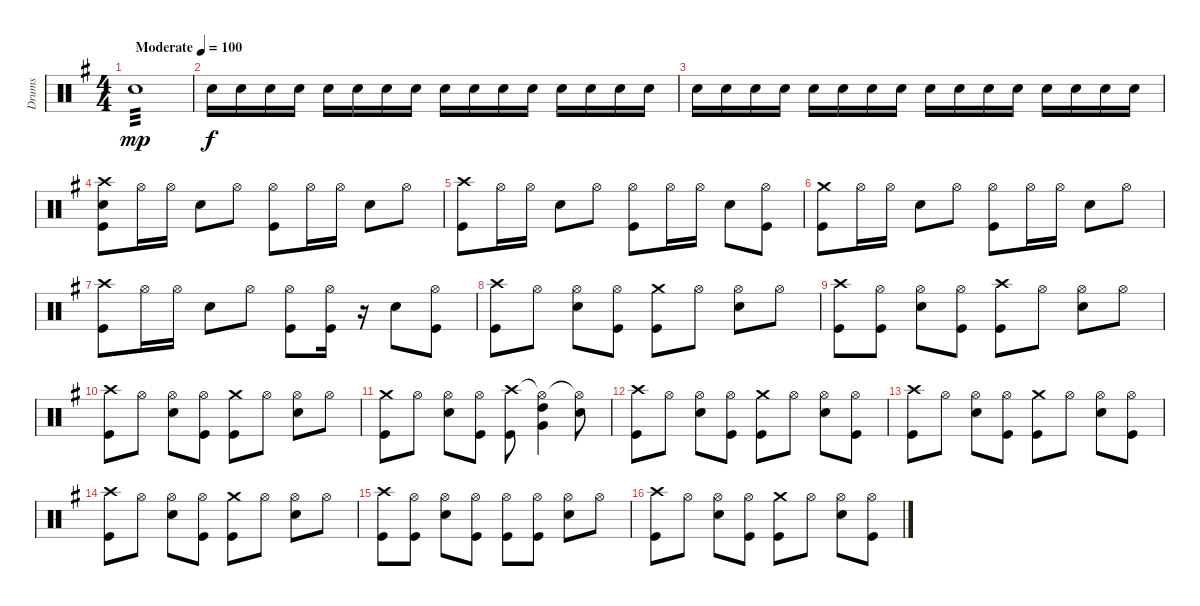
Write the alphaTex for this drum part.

\track ("Drums" "Drums") {instrument percussion}
\staff {score}
\articulation defaults
\ts (4 4)
\tempo (100 "Moderate")
\clef neutral
\ks g "Snare (hit) 2".1{tp 3 dy mp}
|
"Snare (hit) 2".16{dy f} "Snare (hit) 2".16 "Snare (hit) 2".16 "Snare (hit) 2".16 "Snare (hit) 2".16 "Snare (hit) 2".16 "Snare (hit) 2".16 "Snare (hit) 2".16 "Snare (hit) 2".16 "Snare (hit) 2".16 "Snare (hit) 2".16 "Snare (hit) 2".16 "Snare (hit) 2".16 "Snare (hit) 2".16 "Snare (hit) 2".16 "Snare (hit) 2".16 |
"Snare (hit) 2".16 "Snare (hit) 2".16 "Snare (hit) 2".16 "Snare (hit) 2".16 "Snare (hit) 2".16 "Snare (hit) 2".16 "Snare (hit) 2".16 "Snare (hit) 2".16 "Snare (hit) 2".16 "Snare (hit) 2".16 "Snare (hit) 2".16 "Snare (hit) 2".16 "Snare (hit) 2".16 "Snare (hit) 2".16 "Snare (hit) 2".16 "Snare (hit) 2".16 |
("Crash high (hit)" "Snare (hit) 2" "Kick (hit)").8 "Hi-Hat (open)".16 "Hi-Hat (open)".16 "Snare (hit) 2".8 "Hi-Hat (open)".8 ("Hi-Hat (open)" "Kick (hit)").8 "Hi-Hat (open)".16 "Hi-Hat (open)".16 "Snare (hit) 2".8 "Hi-Hat (open)".8 |
("Crash high (hit)" "Kick (hit)").8 "Hi-Hat (open)".16 "Hi-Hat (open)".16 "Snare (hit) 2".8 "Hi-Hat (open)".8 ("Hi-Hat (open)" "Kick (hit)").8 "Hi-Hat (open)".16 "Hi-Hat (open)".16 "Snare (hit) 2".8 ("Hi-Hat (open)" "Kick (hit)").8 |
("Crash medium (hit)" "Kick (hit)").8 "Hi-Hat (open)".16 "Hi-Hat (open)".16 "Snare (hit) 2".8 "Hi-Hat (open)".8 ("Hi-Hat (open)" "Kick (hit)").8 "Hi-Hat (open)".16 "Hi-Hat (open)".16 "Snare (hit) 2".8 "Hi-Hat (open)".8 |
("Crash high (hit)" "Kick (hit)").8 "Hi-Hat (open)".16 "Hi-Hat (open)".16 "Snare (hit) 2".8 "Hi-Hat (open)".8 ("Hi-Hat (open)" "Kick (hit)").8 ("Hi-Hat (open)" "Kick (hit)").16 r.16 "Snare (hit) 2".8 ("Hi-Hat (open)" "Kick (hit)").8 |
("Crash high (hit)" "Kick (hit)").8 "Hi-Hat (open)".8 ("Hi-Hat (open)" "Snare (hit) 2").8 ("Hi-Hat (open)" "Kick (hit)").8 ("Crash medium (hit)" "Kick (hit)").8 "Hi-Hat (open)".8 ("Hi-Hat (open)" "Snare (hit) 2").8 "Hi-Hat (open)".8 |
("Crash high (hit)" "Kick (hit)").8 ("Hi-Hat (open)" "Kick (hit)").8 ("Hi-Hat (open)" "Snare (hit) 2").8 ("Hi-Hat (open)" "Kick (hit)").8 ("Crash high (hit)" "Kick (hit)").8 "Hi-Hat (open)".8 ("Hi-Hat (open)" "Snare (hit) 2").8 "Hi-Hat (open)".8 |
("Crash high (hit)" "Kick (hit)").8 "Hi-Hat (open)".8 ("Hi-Hat (open)" "Snare (hit) 2").8 ("Hi-Hat (open)" "Kick (hit)").8 ("Crash medium (hit)" "Kick (hit)").8 "Hi-Hat (open)".8 ("Hi-Hat (open)" "Snare (hit) 2").8 "Hi-Hat (open)".8 |
("Crash medium (hit)" "Kick (hit)").8 "Hi-Hat (open)".8 ("Hi-Hat (open)" "Snare (hit) 2").8 ("Hi-Hat (open)" "Kick (hit)").8 ("Crash high (hit)" "Kick (hit)").8 ("Hi-Hat (open)"{t} "High Tom (hit)" "Very Low Tom (hit)").4 ("Hi-Hat (open)"{t} "Snare (hit) 2").8 |
("Crash high (hit)" "Kick (hit)").8 "Hi-Hat (open)".8 ("Hi-Hat (open)" "Snare (hit) 2").8 ("Hi-Hat (open)" "Kick (hit)").8 ("Crash medium (hit)" "Kick (hit)").8 "Hi-Hat (open)".8 ("Hi-Hat (open)" "Snare (hit) 2").8 ("Hi-Hat (open)" "Kick (hit)").8 |
("Crash high (hit)" "Kick (hit)").8 "Hi-Hat (open)".8 ("Hi-Hat (open)" "Snare (hit) 2").8 ("Hi-Hat (open)" "Kick (hit)").8 ("Crash medium (hit)" "Kick (hit)").8 "Hi-Hat (open)".8 ("Hi-Hat (open)" "Snare (hit) 2").8 ("Hi-Hat (open)" "Kick (hit)").8 |
("Crash high (hit)" "Kick (hit)").8 "Hi-Hat (open)".8 ("Hi-Hat (open)" "Snare (hit) 2").8 ("Hi-Hat (open)" "Kick (hit)").8 ("Crash medium (hit)" "Kick (hit)").8 "Hi-Hat (open)".8 ("Hi-Hat (open)" "Snare (hit) 2").8 "Hi-Hat (open)".8 |
("Crash high (hit)" "Kick (hit)").8 ("Hi-Hat (open)" "Kick (hit)").8 ("Hi-Hat (open)" "Snare (hit) 2").8 ("Hi-Hat (open)" "Kick (hit)").8 ("Hi-Hat (open)" "Kick (hit)").8 ("Hi-Hat (open)" "Kick (hit)").8 ("Hi-Hat (open)" "Snare (hit) 2").8 "Hi-Hat (open)".8 |
("Crash high (hit)" "Kick (hit)").8 "Hi-Hat (open)".8 ("Hi-Hat (open)" "Snare (hit) 2").8 ("Hi-Hat (open)" "Kick (hit)").8 ("Crash medium (hit)" "Kick (hit)").8 "Hi-Hat (open)".8 ("Hi-Hat (open)" "Snare (hit) 2").8 ("Hi-Hat (open)" "Kick (hit)").8
